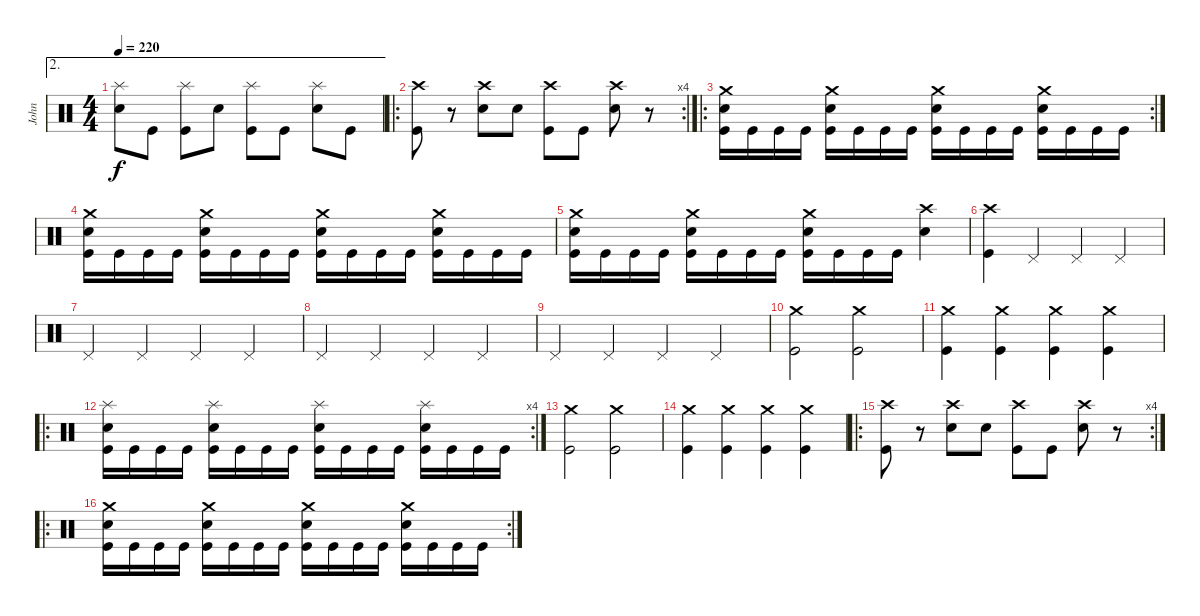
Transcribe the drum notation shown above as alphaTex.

\track ("John" "John") {instrument percussion}
\staff {score}
\articulation defaults
\ae 2
\ts (4 4)
\tempo 220
\clef neutral
\ks c
("Splash (hit)" "Snare (hit) 2").8{dy f} "Kick (hit)".8 ("Splash (hit)" "Kick (hit)").8 "Snare (hit) 2".8 ("Splash (hit)" "Kick (hit)").8 "Kick (hit)".8 ("Splash (hit)" "Snare (hit) 2").8 "Kick (hit)".8 |
\ro
\rc 4
("Crash high (hit)" "Kick (hit)").8 r.8 ("Crash high (hit)" "Snare (hit) 2").8 "Snare (hit) 2".8 ("Crash high (hit)" "Kick (hit)").8 "Kick (hit)".8 ("Crash high (hit)" "Snare (hit) 2").8 r.8 |
\ro
\rc 2
("Crash medium (hit)" "Snare (hit) 2" "Kick (hit)").16 "Kick (hit)".16 "Kick (hit)".16 "Kick (hit)".16 ("Crash medium (hit)" "Snare (hit) 2" "Kick (hit)").16 "Kick (hit)".16 "Kick (hit)".16 "Kick (hit)".16 ("Crash medium (hit)" "Snare (hit) 2" "Kick (hit)").16 "Kick (hit)".16 "Kick (hit)".16 "Kick (hit)".16 ("Crash medium (hit)" "Snare (hit) 2" "Kick (hit)").16 "Kick (hit)".16 "Kick (hit)".16 "Kick (hit)".16 |
("Crash medium (hit)" "Snare (hit) 2" "Kick (hit)").16 "Kick (hit)".16 "Kick (hit)".16 "Kick (hit)".16 ("Crash medium (hit)" "Snare (hit) 2" "Kick (hit)").16 "Kick (hit)".16 "Kick (hit)".16 "Kick (hit)".16 ("Crash medium (hit)" "Snare (hit) 2" "Kick (hit)").16 "Kick (hit)".16 "Kick (hit)".16 "Kick (hit)".16 ("Crash medium (hit)" "Snare (hit) 2" "Kick (hit)").16 "Kick (hit)".16 "Kick (hit)".16 "Kick (hit)".16 |
("Crash medium (hit)" "Snare (hit) 2" "Kick (hit)").16 "Kick (hit)".16 "Kick (hit)".16 "Kick (hit)".16 ("Crash medium (hit)" "Snare (hit) 2" "Kick (hit)").16 "Kick (hit)".16 "Kick (hit)".16 "Kick (hit)".16 ("Crash medium (hit)" "Snare (hit) 2" "Kick (hit)").16 "Kick (hit)".16 "Kick (hit)".16 "Kick (hit)".16 ("Crash high (hit)" "Snare (hit) 2").4 |
("Crash high (hit)" "Kick (hit)").4 "Pedal Hi-Hat (hit)".4 "Pedal Hi-Hat (hit)".4 "Pedal Hi-Hat (hit)".4 |
"Pedal Hi-Hat (hit)".4 "Pedal Hi-Hat (hit)".4 "Pedal Hi-Hat (hit)".4 "Pedal Hi-Hat (hit)".4 |
"Pedal Hi-Hat (hit)".4 "Pedal Hi-Hat (hit)".4 "Pedal Hi-Hat (hit)".4 "Pedal Hi-Hat (hit)".4 |
"Pedal Hi-Hat (hit)".4 "Pedal Hi-Hat (hit)".4 "Pedal Hi-Hat (hit)".4 "Pedal Hi-Hat (hit)".4 |
("Crash medium (hit)" "Kick (hit)").2 ("Crash medium (hit)" "Kick (hit)").2 |
("Crash medium (hit)" "Kick (hit)").4 ("Crash medium (hit)" "Kick (hit)").4 ("Crash medium (hit)" "Kick (hit)").4 ("Crash medium (hit)" "Kick (hit)").4 |
\ro
\rc 4
("Splash (hit)" "Snare (hit) 2" "Kick (hit)").16 "Kick (hit)".16 "Kick (hit)".16 "Kick (hit)".16 ("Splash (hit)" "Snare (hit) 2" "Kick (hit)").16 "Kick (hit)".16 "Kick (hit)".16 "Kick (hit)".16 ("Splash (hit)" "Snare (hit) 2" "Kick (hit)").16 "Kick (hit)".16 "Kick (hit)".16 "Kick (hit)".16 ("Splash (hit)" "Snare (hit) 2" "Kick (hit)").16 "Kick (hit)".16 "Kick (hit)".16 "Kick (hit)".16 |
("Crash medium (hit)" "Kick (hit)").2 ("Crash medium (hit)" "Kick (hit)").2 |
("Crash medium (hit)" "Kick (hit)").4 ("Crash medium (hit)" "Kick (hit)").4 ("Crash medium (hit)" "Kick (hit)").4 ("Crash medium (hit)" "Kick (hit)").4 |
\ro
\rc 4
("Crash high (hit)" "Kick (hit)").8 r.8 ("Crash high (hit)" "Snare (hit) 2").8 "Snare (hit) 2".8 ("Crash high (hit)" "Kick (hit)").8 "Kick (hit)".8 ("Crash high (hit)" "Snare (hit) 2").8 r.8 |
\ro
\rc 2
("Crash medium (hit)" "Snare (hit) 2" "Kick (hit)").16 "Kick (hit)".16 "Kick (hit)".16 "Kick (hit)".16 ("Crash medium (hit)" "Snare (hit) 2" "Kick (hit)").16 "Kick (hit)".16 "Kick (hit)".16 "Kick (hit)".16 ("Crash medium (hit)" "Snare (hit) 2" "Kick (hit)").16 "Kick (hit)".16 "Kick (hit)".16 "Kick (hit)".16 ("Crash medium (hit)" "Snare (hit) 2" "Kick (hit)").16 "Kick (hit)".16 "Kick (hit)".16 "Kick (hit)".16
